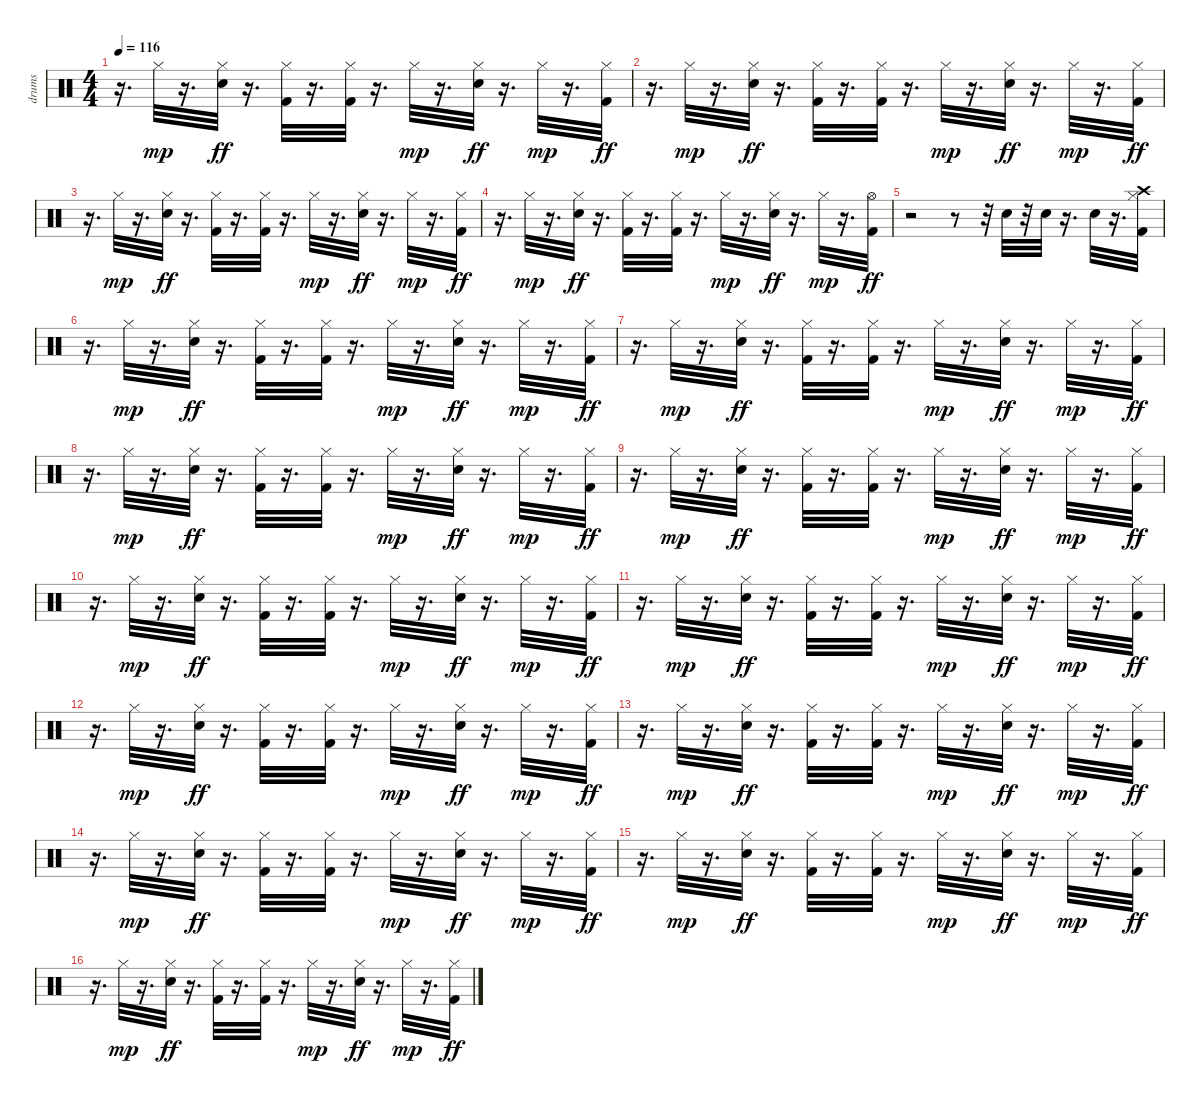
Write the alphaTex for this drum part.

\track ("drums" "drums") {instrument percussion}
\staff {score}
\articulation defaults
\ts (4 4)
\tempo 116
\clef neutral
\ks c
r.16{d dy ff} "Hi-Hat (closed)".32{dy mp} r.16{d} ("Hi-Hat (closed)" "Snare (hit) 2").32{dy ff} r.16{d} ("Hi-Hat (closed)" "Kick (hit) 2").32 r.16{d} ("Hi-Hat (closed)" "Kick (hit) 2").32 r.16{d} "Hi-Hat (closed)".32{dy mp} r.16{d} ("Hi-Hat (closed)" "Snare (hit) 2").32{dy ff} r.16{d} "Hi-Hat (closed)".32{dy mp} r.16{d} ("Hi-Hat (closed)" "Kick (hit) 2").32{dy ff} |
r.16{d} "Hi-Hat (closed)".32{dy mp} r.16{d} ("Hi-Hat (closed)" "Snare (hit) 2").32{dy ff} r.16{d} ("Hi-Hat (closed)" "Kick (hit) 2").32 r.16{d} ("Hi-Hat (closed)" "Kick (hit) 2").32 r.16{d} "Hi-Hat (closed)".32{dy mp} r.16{d} ("Hi-Hat (closed)" "Snare (hit) 2").32{dy ff} r.16{d} "Hi-Hat (closed)".32{dy mp} r.16{d} ("Hi-Hat (closed)" "Kick (hit) 2").32{dy ff} |
r.16{d} "Hi-Hat (closed)".32{dy mp} r.16{d} ("Hi-Hat (closed)" "Snare (hit) 2").32{dy ff} r.16{d} ("Hi-Hat (closed)" "Kick (hit) 2").32 r.16{d} ("Hi-Hat (closed)" "Kick (hit) 2").32 r.16{d} "Hi-Hat (closed)".32{dy mp} r.16{d} ("Hi-Hat (closed)" "Snare (hit) 2").32{dy ff} r.16{d} "Hi-Hat (closed)".32{dy mp} r.16{d} ("Hi-Hat (closed)" "Kick (hit) 2").32{dy ff} |
r.16{d} "Hi-Hat (closed)".32{dy mp} r.16{d} ("Hi-Hat (closed)" "Snare (hit) 2").32{dy ff} r.16{d} ("Hi-Hat (closed)" "Kick (hit) 2").32 r.16{d} ("Hi-Hat (closed)" "Kick (hit) 2").32 r.16{d} "Hi-Hat (closed)".32{dy mp} r.16{d} ("Hi-Hat (closed)" "Snare (hit) 2").32{dy ff} r.16{d} "Hi-Hat (closed)".32{dy mp} r.16{d} ("Hi-Hat (open)" "Kick (hit) 2").32{dy ff} |
r.2 r.8 r.32 "Snare (hit) 2".32 r.32 "Snare (hit) 2".32 r.16{d} "Snare (hit) 2".32 r.16{d} ("Crash high (hit)" "Hi-Hat (closed)" "Kick (hit) 2").32 |
r.16{d} "Hi-Hat (closed)".32{dy mp} r.16{d} ("Hi-Hat (closed)" "Snare (hit) 2").32{dy ff} r.16{d} ("Hi-Hat (closed)" "Kick (hit) 2").32 r.16{d} ("Hi-Hat (closed)" "Kick (hit) 2").32 r.16{d} "Hi-Hat (closed)".32{dy mp} r.16{d} ("Hi-Hat (closed)" "Snare (hit) 2").32{dy ff} r.16{d} "Hi-Hat (closed)".32{dy mp} r.16{d} ("Hi-Hat (closed)" "Kick (hit) 2").32{dy ff} |
r.16{d} "Hi-Hat (closed)".32{dy mp} r.16{d} ("Hi-Hat (closed)" "Snare (hit) 2").32{dy ff} r.16{d} ("Hi-Hat (closed)" "Kick (hit) 2").32 r.16{d} ("Hi-Hat (closed)" "Kick (hit) 2").32 r.16{d} "Hi-Hat (closed)".32{dy mp} r.16{d} ("Hi-Hat (closed)" "Snare (hit) 2").32{dy ff} r.16{d} "Hi-Hat (closed)".32{dy mp} r.16{d} ("Hi-Hat (closed)" "Kick (hit) 2").32{dy ff} |
r.16{d} "Hi-Hat (closed)".32{dy mp} r.16{d} ("Hi-Hat (closed)" "Snare (hit) 2").32{dy ff} r.16{d} ("Hi-Hat (closed)" "Kick (hit) 2").32 r.16{d} ("Hi-Hat (closed)" "Kick (hit) 2").32 r.16{d} "Hi-Hat (closed)".32{dy mp} r.16{d} ("Hi-Hat (closed)" "Snare (hit) 2").32{dy ff} r.16{d} "Hi-Hat (closed)".32{dy mp} r.16{d} ("Hi-Hat (closed)" "Kick (hit) 2").32{dy ff} |
r.16{d} "Hi-Hat (closed)".32{dy mp} r.16{d} ("Hi-Hat (closed)" "Snare (hit) 2").32{dy ff} r.16{d} ("Hi-Hat (closed)" "Kick (hit) 2").32 r.16{d} ("Hi-Hat (closed)" "Kick (hit) 2").32 r.16{d} "Hi-Hat (closed)".32{dy mp} r.16{d} ("Hi-Hat (closed)" "Snare (hit) 2").32{dy ff} r.16{d} "Hi-Hat (closed)".32{dy mp} r.16{d} ("Hi-Hat (closed)" "Kick (hit) 2").32{dy ff} |
r.16{d} "Hi-Hat (closed)".32{dy mp} r.16{d} ("Hi-Hat (closed)" "Snare (hit) 2").32{dy ff} r.16{d} ("Hi-Hat (closed)" "Kick (hit) 2").32 r.16{d} ("Hi-Hat (closed)" "Kick (hit) 2").32 r.16{d} "Hi-Hat (closed)".32{dy mp} r.16{d} ("Hi-Hat (closed)" "Snare (hit) 2").32{dy ff} r.16{d} "Hi-Hat (closed)".32{dy mp} r.16{d} ("Hi-Hat (closed)" "Kick (hit) 2").32{dy ff} |
r.16{d} "Hi-Hat (closed)".32{dy mp} r.16{d} ("Hi-Hat (closed)" "Snare (hit) 2").32{dy ff} r.16{d} ("Hi-Hat (closed)" "Kick (hit) 2").32 r.16{d} ("Hi-Hat (closed)" "Kick (hit) 2").32 r.16{d} "Hi-Hat (closed)".32{dy mp} r.16{d} ("Hi-Hat (closed)" "Snare (hit) 2").32{dy ff} r.16{d} "Hi-Hat (closed)".32{dy mp} r.16{d} ("Hi-Hat (closed)" "Kick (hit) 2").32{dy ff} |
r.16{d} "Hi-Hat (closed)".32{dy mp} r.16{d} ("Hi-Hat (closed)" "Snare (hit) 2").32{dy ff} r.16{d} ("Hi-Hat (closed)" "Kick (hit) 2").32 r.16{d} ("Hi-Hat (closed)" "Kick (hit) 2").32 r.16{d} "Hi-Hat (closed)".32{dy mp} r.16{d} ("Hi-Hat (closed)" "Snare (hit) 2").32{dy ff} r.16{d} "Hi-Hat (closed)".32{dy mp} r.16{d} ("Hi-Hat (closed)" "Kick (hit) 2").32{dy ff} |
r.16{d} "Hi-Hat (closed)".32{dy mp} r.16{d} ("Hi-Hat (closed)" "Snare (hit) 2").32{dy ff} r.16{d} ("Hi-Hat (closed)" "Kick (hit) 2").32 r.16{d} ("Hi-Hat (closed)" "Kick (hit) 2").32 r.16{d} "Hi-Hat (closed)".32{dy mp} r.16{d} ("Hi-Hat (closed)" "Snare (hit) 2").32{dy ff} r.16{d} "Hi-Hat (closed)".32{dy mp} r.16{d} ("Hi-Hat (closed)" "Kick (hit) 2").32{dy ff} |
r.16{d} "Hi-Hat (closed)".32{dy mp} r.16{d} ("Hi-Hat (closed)" "Snare (hit) 2").32{dy ff} r.16{d} ("Hi-Hat (closed)" "Kick (hit) 2").32 r.16{d} ("Hi-Hat (closed)" "Kick (hit) 2").32 r.16{d} "Hi-Hat (closed)".32{dy mp} r.16{d} ("Hi-Hat (closed)" "Snare (hit) 2").32{dy ff} r.16{d} "Hi-Hat (closed)".32{dy mp} r.16{d} ("Hi-Hat (closed)" "Kick (hit) 2").32{dy ff} |
r.16{d} "Hi-Hat (closed)".32{dy mp} r.16{d} ("Hi-Hat (closed)" "Snare (hit) 2").32{dy ff} r.16{d} ("Hi-Hat (closed)" "Kick (hit) 2").32 r.16{d} ("Hi-Hat (closed)" "Kick (hit) 2").32 r.16{d} "Hi-Hat (closed)".32{dy mp} r.16{d} ("Hi-Hat (closed)" "Snare (hit) 2").32{dy ff} r.16{d} "Hi-Hat (closed)".32{dy mp} r.16{d} ("Hi-Hat (closed)" "Kick (hit) 2").32{dy ff} |
r.16{d} "Hi-Hat (closed)".32{dy mp} r.16{d} ("Hi-Hat (closed)" "Snare (hit) 2").32{dy ff} r.16{d} ("Hi-Hat (closed)" "Kick (hit) 2").32 r.16{d} ("Hi-Hat (closed)" "Kick (hit) 2").32 r.16{d} "Hi-Hat (closed)".32{dy mp} r.16{d} ("Hi-Hat (closed)" "Snare (hit) 2").32{dy ff} r.16{d} "Hi-Hat (closed)".32{dy mp} r.16{d} ("Hi-Hat (closed)" "Kick (hit) 2").32{dy ff}
